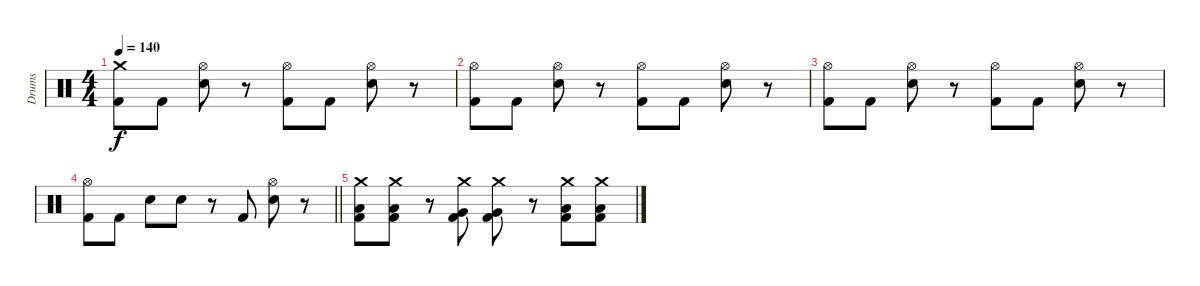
\track ("Drums" "Drums") {instrument percussion}
\staff {score}
\articulation defaults
\ts (4 4)
\tempo 140
\clef neutral
\ks c
("Crash medium (hit)" "Kick (hit) 2").8{dy f} "Kick (hit) 2".8 ("Hi-Hat (open)" "Electric Snare (hit)").8 r.8 ("Hi-Hat (open)" "Kick (hit) 2").8 "Kick (hit) 2".8 ("Hi-Hat (open)" "Electric Snare (hit)").8 r.8 |
("Hi-Hat (open)" "Kick (hit) 2").8 "Kick (hit) 2".8 ("Hi-Hat (open)" "Electric Snare (hit)").8 r.8 ("Hi-Hat (open)" "Kick (hit) 2").8 "Kick (hit) 2".8 ("Hi-Hat (open)" "Electric Snare (hit)").8 r.8 |
("Hi-Hat (open)" "Kick (hit) 2").8 "Kick (hit) 2".8 ("Hi-Hat (open)" "Electric Snare (hit)").8 r.8 ("Hi-Hat (open)" "Kick (hit) 2").8 "Kick (hit) 2".8 ("Hi-Hat (open)" "Electric Snare (hit)").8 r.8 |
\barLineRight lightlight
("Hi-Hat (open)" "Kick (hit) 2").8 "Kick (hit) 2".8 "Electric Snare (hit)".8 "Electric Snare (hit)".8 r.8 "Kick (hit) 2".8 ("Hi-Hat (open)" "Electric Snare (hit)").8 r.8 |
("Crash medium (hit)" "Low Tom (hit)" "Kick (hit) 2").8 ("Crash medium (hit)" "Low Tom (hit)" "Kick (hit) 2").8 r.8 ("Crash medium (hit)" "Very Low Tom (hit)" "Kick (hit) 2").8 ("Crash medium (hit)" "Very Low Tom (hit)" "Kick (hit) 2").8 r.8 ("Crash medium (hit)" "Low Floor Tom (hit)" "Kick (hit) 2").8 ("Crash medium (hit)" "Low Floor Tom (hit)" "Kick (hit) 2").8
